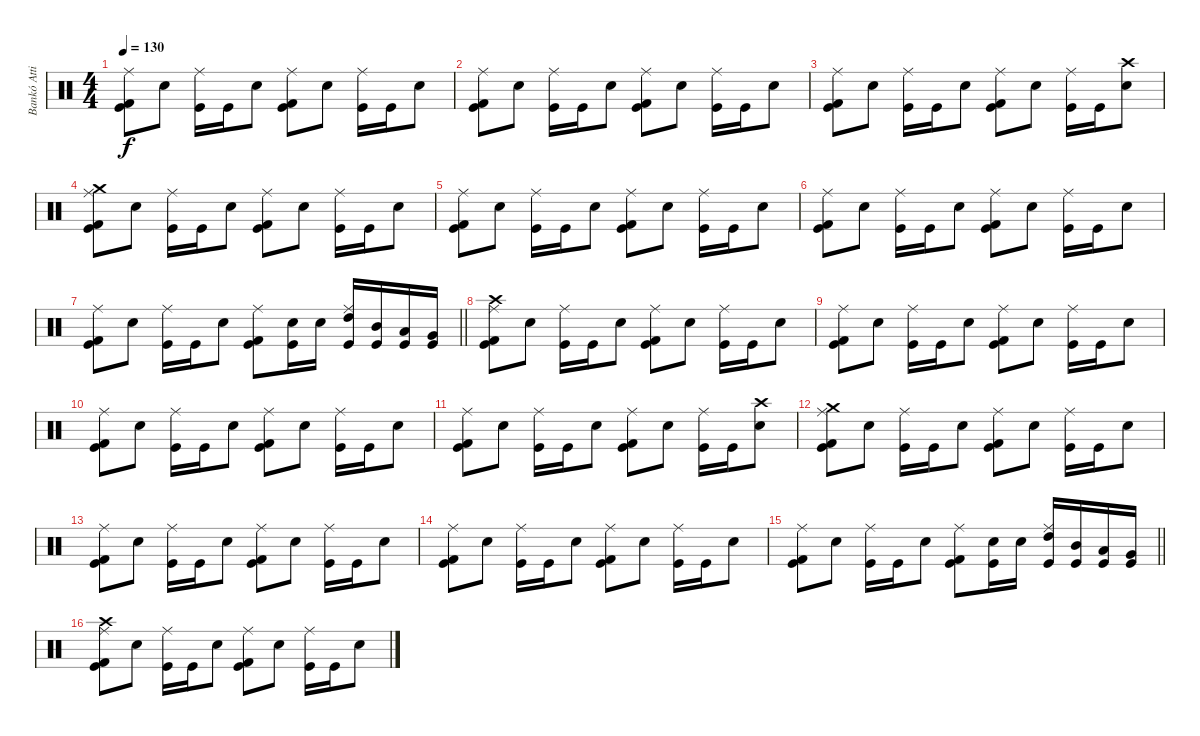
\track ("Bankó Attila-Drum" "Bankó Atti") {instrument percussion}
\staff {score}
\articulation defaults
\ts (4 4)
\tempo 130
\clef neutral
\ks c
("Kick (hit) 2" "Kick (hit)" "Ride (middle)").8{dy f} "Snare (hit) 2".8 ("Kick (hit)" "Ride (middle)").16 "Kick (hit)".16 "Snare (hit) 2".8 ("Kick (hit) 2" "Kick (hit)" "Ride (middle)").8 "Snare (hit) 2".8 ("Kick (hit)" "Ride (middle)").16 "Kick (hit)".16 "Snare (hit) 2".8 |
("Kick (hit) 2" "Kick (hit)" "Ride (middle)").8 "Snare (hit) 2".8 ("Kick (hit)" "Ride (middle)").16 "Kick (hit)".16 "Snare (hit) 2".8 ("Kick (hit) 2" "Kick (hit)" "Ride (middle)").8 "Snare (hit) 2".8 ("Kick (hit)" "Ride (middle)").16 "Kick (hit)".16 "Snare (hit) 2".8 |
("Kick (hit) 2" "Kick (hit)" "Ride (middle)").8 "Snare (hit) 2".8 ("Kick (hit)" "Ride (middle)").16 "Kick (hit)".16 "Snare (hit) 2".8 ("Kick (hit) 2" "Kick (hit)" "Ride (middle)").8 "Snare (hit) 2".8 ("Kick (hit)" "Ride (middle)").16 "Kick (hit)".16 ("Snare (hit) 2" "Crash high (hit)").8 |
("Kick (hit) 2" "Kick (hit)" "Crash medium (hit)" "Ride (middle)").8 "Snare (hit) 2".8 ("Kick (hit)" "Ride (middle)").16 "Kick (hit)".16 "Snare (hit) 2".8 ("Kick (hit) 2" "Kick (hit)" "Ride (middle)").8 "Snare (hit) 2".8 ("Kick (hit)" "Ride (middle)").16 "Kick (hit)".16 "Snare (hit) 2".8 |
("Kick (hit) 2" "Kick (hit)" "Ride (middle)").8 "Snare (hit) 2".8 ("Kick (hit)" "Ride (middle)").16 "Kick (hit)".16 "Snare (hit) 2".8 ("Kick (hit) 2" "Kick (hit)" "Ride (middle)").8 "Snare (hit) 2".8 ("Kick (hit)" "Ride (middle)").16 "Kick (hit)".16 "Snare (hit) 2".8 |
("Kick (hit) 2" "Kick (hit)" "Ride (middle)").8 "Snare (hit) 2".8 ("Kick (hit)" "Ride (middle)").16 "Kick (hit)".16 "Snare (hit) 2".8 ("Kick (hit) 2" "Kick (hit)" "Ride (middle)").8 "Snare (hit) 2".8 ("Kick (hit)" "Ride (middle)").16 "Kick (hit)".16 "Snare (hit) 2".8 |
\barLineRight lightlight
("Kick (hit) 2" "Kick (hit)" "Ride (middle)").8 "Snare (hit) 2".8 ("Kick (hit)" "Ride (middle)").16 "Kick (hit)".16 "Snare (hit) 2".8 ("Kick (hit) 2" "Kick (hit)" "Ride (middle)").8 ("Snare (hit) 2" "Kick (hit)").16 "Snare (hit) 2".16 ("High Tom (hit)" "Kick (hit)" "Ride (middle)").16 ("Mid Tom (hit)" "Kick (hit)").16 ("Low Tom (hit)" "Kick (hit)").16 ("Very Low Tom (hit)" "Kick (hit)").16 |
("Kick (hit) 2" "Kick (hit)" "Crash high (hit)" "Ride (middle)").8 "Snare (hit) 2".8 ("Kick (hit)" "Ride (middle)").16 "Kick (hit)".16 "Snare (hit) 2".8 ("Kick (hit) 2" "Kick (hit)" "Ride (middle)").8 "Snare (hit) 2".8 ("Kick (hit)" "Ride (middle)").16 "Kick (hit)".16 "Snare (hit) 2".8 |
("Kick (hit) 2" "Kick (hit)" "Ride (middle)").8 "Snare (hit) 2".8 ("Kick (hit)" "Ride (middle)").16 "Kick (hit)".16 "Snare (hit) 2".8 ("Kick (hit) 2" "Kick (hit)" "Ride (middle)").8 "Snare (hit) 2".8 ("Kick (hit)" "Ride (middle)").16 "Kick (hit)".16 "Snare (hit) 2".8 |
("Kick (hit) 2" "Kick (hit)" "Ride (middle)").8 "Snare (hit) 2".8 ("Kick (hit)" "Ride (middle)").16 "Kick (hit)".16 "Snare (hit) 2".8 ("Kick (hit) 2" "Kick (hit)" "Ride (middle)").8 "Snare (hit) 2".8 ("Kick (hit)" "Ride (middle)").16 "Kick (hit)".16 "Snare (hit) 2".8 |
("Kick (hit) 2" "Kick (hit)" "Ride (middle)").8 "Snare (hit) 2".8 ("Kick (hit)" "Ride (middle)").16 "Kick (hit)".16 "Snare (hit) 2".8 ("Kick (hit) 2" "Kick (hit)" "Ride (middle)").8 "Snare (hit) 2".8 ("Kick (hit)" "Ride (middle)").16 "Kick (hit)".16 ("Snare (hit) 2" "Crash high (hit)").8 |
("Kick (hit) 2" "Kick (hit)" "Crash medium (hit)" "Ride (middle)").8 "Snare (hit) 2".8 ("Kick (hit)" "Ride (middle)").16 "Kick (hit)".16 "Snare (hit) 2".8 ("Kick (hit) 2" "Kick (hit)" "Ride (middle)").8 "Snare (hit) 2".8 ("Kick (hit)" "Ride (middle)").16 "Kick (hit)".16 "Snare (hit) 2".8 |
("Kick (hit) 2" "Kick (hit)" "Ride (middle)").8 "Snare (hit) 2".8 ("Kick (hit)" "Ride (middle)").16 "Kick (hit)".16 "Snare (hit) 2".8 ("Kick (hit) 2" "Kick (hit)" "Ride (middle)").8 "Snare (hit) 2".8 ("Kick (hit)" "Ride (middle)").16 "Kick (hit)".16 "Snare (hit) 2".8 |
("Kick (hit) 2" "Kick (hit)" "Ride (middle)").8 "Snare (hit) 2".8 ("Kick (hit)" "Ride (middle)").16 "Kick (hit)".16 "Snare (hit) 2".8 ("Kick (hit) 2" "Kick (hit)" "Ride (middle)").8 "Snare (hit) 2".8 ("Kick (hit)" "Ride (middle)").16 "Kick (hit)".16 "Snare (hit) 2".8 |
\barLineRight lightlight
("Kick (hit) 2" "Kick (hit)" "Ride (middle)").8 "Snare (hit) 2".8 ("Kick (hit)" "Ride (middle)").16 "Kick (hit)".16 "Snare (hit) 2".8 ("Kick (hit) 2" "Kick (hit)" "Ride (middle)").8 ("Snare (hit) 2" "Kick (hit)").16 "Snare (hit) 2".16 ("High Tom (hit)" "Kick (hit)" "Ride (middle)").16 ("Mid Tom (hit)" "Kick (hit)").16 ("Low Tom (hit)" "Kick (hit)").16 ("Very Low Tom (hit)" "Kick (hit)").16 |
("Kick (hit) 2" "Kick (hit)" "Crash high (hit)" "Ride (middle)").8 "Snare (hit) 2".8 ("Kick (hit)" "Ride (middle)").16 "Kick (hit)".16 "Snare (hit) 2".8 ("Kick (hit) 2" "Kick (hit)" "Ride (middle)").8 "Snare (hit) 2".8 ("Kick (hit)" "Ride (middle)").16 "Kick (hit)".16 "Snare (hit) 2".8
